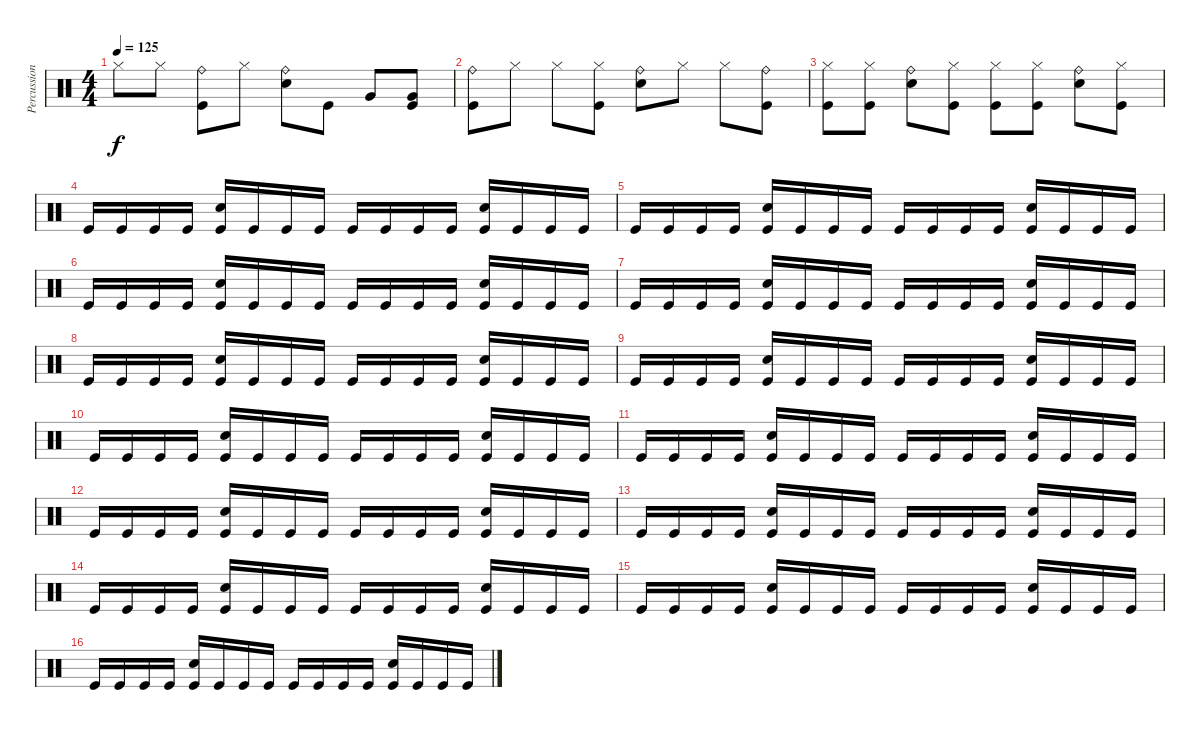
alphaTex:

\track ("Percussion" "Percussion") {instrument percussion}
\staff {score}
\articulation defaults
\ts (4 4)
\tempo 125
\clef neutral
\ks c "Hi-Hat (closed)".8{dy f} "Hi-Hat (closed)".8
("Ride (bell)" "Kick (hit)").8 "Hi-Hat (closed)".8 ("Ride (bell)" "Electric Snare (hit)").8 "Kick (hit)".8 "Very Low Tom (hit)".8 ("Very Low Tom (hit)" "Kick (hit)").8 |
("Ride (bell)" "Kick (hit)").8 "Hi-Hat (closed)".8 "Hi-Hat (closed)".8 ("Hi-Hat (closed)" "Kick (hit)").8 ("Ride (bell)" "Electric Snare (hit)").8 "Hi-Hat (closed)".8 "Hi-Hat (closed)".8 ("Ride (bell)" "Kick (hit)").8 |
("Hi-Hat (closed)" "Kick (hit)").8 ("Hi-Hat (closed)" "Kick (hit)").8 ("Ride (bell)" "Electric Snare (hit)").8 ("Hi-Hat (closed)" "Kick (hit)").8 ("Hi-Hat (closed)" "Kick (hit)").8 ("Hi-Hat (closed)" "Kick (hit)").8 ("Ride (bell)" "Electric Snare (hit)").8 ("Hi-Hat (closed)" "Kick (hit)").8 |
"Kick (hit)".16 "Kick (hit)".16 "Kick (hit)".16 "Kick (hit)".16 ("Electric Snare (hit)" "Kick (hit)").16 "Kick (hit)".16 "Kick (hit)".16 "Kick (hit)".16 "Kick (hit)".16 "Kick (hit)".16 "Kick (hit)".16 "Kick (hit)".16 ("Electric Snare (hit)" "Kick (hit)").16 "Kick (hit)".16 "Kick (hit)".16 "Kick (hit)".16 |
"Kick (hit)".16 "Kick (hit)".16 "Kick (hit)".16 "Kick (hit)".16 ("Electric Snare (hit)" "Kick (hit)").16 "Kick (hit)".16 "Kick (hit)".16 "Kick (hit)".16 "Kick (hit)".16 "Kick (hit)".16 "Kick (hit)".16 "Kick (hit)".16 ("Electric Snare (hit)" "Kick (hit)").16 "Kick (hit)".16 "Kick (hit)".16 "Kick (hit)".16 |
"Kick (hit)".16 "Kick (hit)".16 "Kick (hit)".16 "Kick (hit)".16 ("Electric Snare (hit)" "Kick (hit)").16 "Kick (hit)".16 "Kick (hit)".16 "Kick (hit)".16 "Kick (hit)".16 "Kick (hit)".16 "Kick (hit)".16 "Kick (hit)".16 ("Electric Snare (hit)" "Kick (hit)").16 "Kick (hit)".16 "Kick (hit)".16 "Kick (hit)".16 |
"Kick (hit)".16 "Kick (hit)".16 "Kick (hit)".16 "Kick (hit)".16 ("Electric Snare (hit)" "Kick (hit)").16 "Kick (hit)".16 "Kick (hit)".16 "Kick (hit)".16 "Kick (hit)".16 "Kick (hit)".16 "Kick (hit)".16 "Kick (hit)".16 ("Electric Snare (hit)" "Kick (hit)").16 "Kick (hit)".16 "Kick (hit)".16 "Kick (hit)".16 |
"Kick (hit)".16 "Kick (hit)".16 "Kick (hit)".16 "Kick (hit)".16 ("Electric Snare (hit)" "Kick (hit)").16 "Kick (hit)".16 "Kick (hit)".16 "Kick (hit)".16 "Kick (hit)".16 "Kick (hit)".16 "Kick (hit)".16 "Kick (hit)".16 ("Electric Snare (hit)" "Kick (hit)").16 "Kick (hit)".16 "Kick (hit)".16 "Kick (hit)".16 |
"Kick (hit)".16 "Kick (hit)".16 "Kick (hit)".16 "Kick (hit)".16 ("Electric Snare (hit)" "Kick (hit)").16 "Kick (hit)".16 "Kick (hit)".16 "Kick (hit)".16 "Kick (hit)".16 "Kick (hit)".16 "Kick (hit)".16 "Kick (hit)".16 ("Electric Snare (hit)" "Kick (hit)").16 "Kick (hit)".16 "Kick (hit)".16 "Kick (hit)".16 |
"Kick (hit)".16 "Kick (hit)".16 "Kick (hit)".16 "Kick (hit)".16 ("Electric Snare (hit)" "Kick (hit)").16 "Kick (hit)".16 "Kick (hit)".16 "Kick (hit)".16 "Kick (hit)".16 "Kick (hit)".16 "Kick (hit)".16 "Kick (hit)".16 ("Electric Snare (hit)" "Kick (hit)").16 "Kick (hit)".16 "Kick (hit)".16 "Kick (hit)".16 |
"Kick (hit)".16 "Kick (hit)".16 "Kick (hit)".16 "Kick (hit)".16 ("Electric Snare (hit)" "Kick (hit)").16 "Kick (hit)".16 "Kick (hit)".16 "Kick (hit)".16 "Kick (hit)".16 "Kick (hit)".16 "Kick (hit)".16 "Kick (hit)".16 ("Electric Snare (hit)" "Kick (hit)").16 "Kick (hit)".16 "Kick (hit)".16 "Kick (hit)".16 |
"Kick (hit)".16 "Kick (hit)".16 "Kick (hit)".16 "Kick (hit)".16 ("Electric Snare (hit)" "Kick (hit)").16 "Kick (hit)".16 "Kick (hit)".16 "Kick (hit)".16 "Kick (hit)".16 "Kick (hit)".16 "Kick (hit)".16 "Kick (hit)".16 ("Electric Snare (hit)" "Kick (hit)").16 "Kick (hit)".16 "Kick (hit)".16 "Kick (hit)".16 |
"Kick (hit)".16 "Kick (hit)".16 "Kick (hit)".16 "Kick (hit)".16 ("Electric Snare (hit)" "Kick (hit)").16 "Kick (hit)".16 "Kick (hit)".16 "Kick (hit)".16 "Kick (hit)".16 "Kick (hit)".16 "Kick (hit)".16 "Kick (hit)".16 ("Electric Snare (hit)" "Kick (hit)").16 "Kick (hit)".16 "Kick (hit)".16 "Kick (hit)".16 |
"Kick (hit)".16 "Kick (hit)".16 "Kick (hit)".16 "Kick (hit)".16 ("Electric Snare (hit)" "Kick (hit)").16 "Kick (hit)".16 "Kick (hit)".16 "Kick (hit)".16 "Kick (hit)".16 "Kick (hit)".16 "Kick (hit)".16 "Kick (hit)".16 ("Electric Snare (hit)" "Kick (hit)").16 "Kick (hit)".16 "Kick (hit)".16 "Kick (hit)".16 |
"Kick (hit)".16 "Kick (hit)".16 "Kick (hit)".16 "Kick (hit)".16 ("Electric Snare (hit)" "Kick (hit)").16 "Kick (hit)".16 "Kick (hit)".16 "Kick (hit)".16 "Kick (hit)".16 "Kick (hit)".16 "Kick (hit)".16 "Kick (hit)".16 ("Electric Snare (hit)" "Kick (hit)").16 "Kick (hit)".16 "Kick (hit)".16 "Kick (hit)".16 |
"Kick (hit)".16 "Kick (hit)".16 "Kick (hit)".16 "Kick (hit)".16 ("Electric Snare (hit)" "Kick (hit)").16 "Kick (hit)".16 "Kick (hit)".16 "Kick (hit)".16 "Kick (hit)".16 "Kick (hit)".16 "Kick (hit)".16 "Kick (hit)".16 ("Electric Snare (hit)" "Kick (hit)").16 "Kick (hit)".16 "Kick (hit)".16 "Kick (hit)".16
